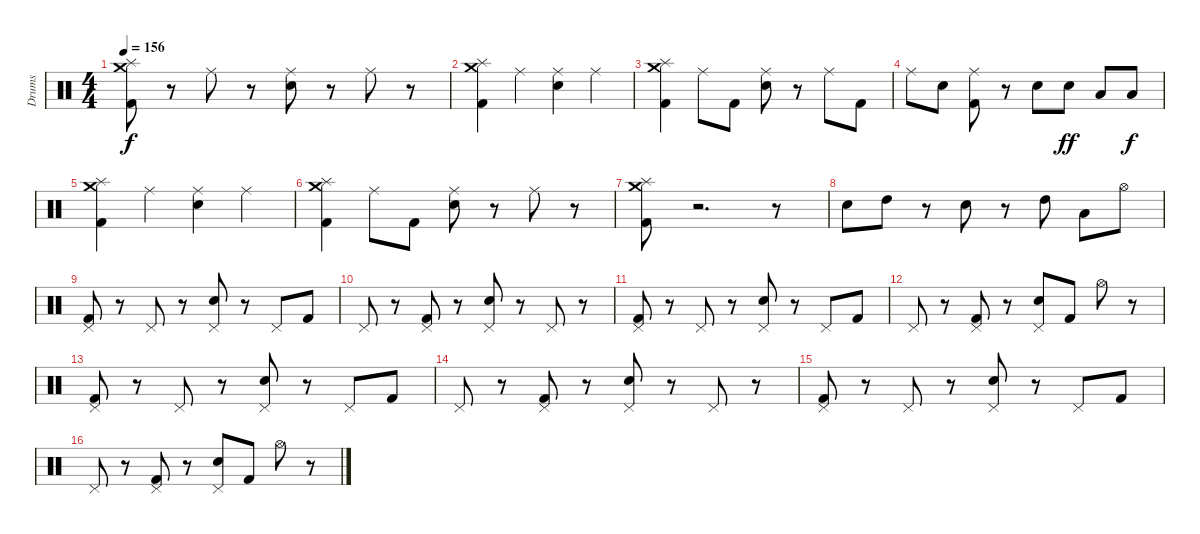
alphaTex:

\track ("Drums" "Drums") {instrument percussion}
\staff {score}
\articulation defaults
\ts (4 4)
\tempo 156
\clef neutral
\ks c
("Splash (hit)" "Crash medium (hit)" "Kick (hit) 2").8{dy f} r.8 "Ride (middle)".8 r.8 ("Ride (middle)" "Electric Snare (hit)").8 r.8 "Ride (middle)".8 r.8 |
("Crash medium (hit)" "Splash (hit)" "Kick (hit) 2").4 "Ride (middle)".4 ("Ride (middle)" "Electric Snare (hit)").4 "Ride (middle)".4 |
("Crash medium (hit)" "Splash (hit)" "Kick (hit) 2").4 "Ride (middle)".8 "Kick (hit) 2".8 ("Ride (middle)" "Electric Snare (hit)").8 r.8 "Ride (middle)".8 "Kick (hit) 2".8 |
"Ride (middle)".8 "Electric Snare (hit)".8 ("Ride (middle)" "Kick (hit) 2").8 r.8 "Electric Snare (hit)".8 "Electric Snare (hit)".8{dy ff} "Low Tom (hit)".8 "Low Tom (hit)".8{dy f} |
("Crash medium (hit)" "Splash (hit)" "Kick (hit) 2").4 "Ride (middle)".4 ("Ride (middle)" "Electric Snare (hit)").4 "Ride (middle)".4 |
("Crash medium (hit)" "Splash (hit)" "Kick (hit) 2").4 "Ride (middle)".8 "Kick (hit) 2".8 ("Ride (middle)" "Electric Snare (hit)").8 r.8 "Ride (middle)".8 r.8 |
("Crash medium (hit)" "Splash (hit)" "Kick (hit) 2").8 r.2{d} r.8 |
"Electric Snare (hit)".8 "High Tom (hit)".8 r.8 "Electric Snare (hit)".8 r.8 "High Tom (hit)".8 "Low Tom (hit)".8 "Hi-Hat (open)".8 |
("Pedal Hi-Hat (hit)" "Kick (hit) 2").8 r.8 "Pedal Hi-Hat (hit)".8 r.8 ("Pedal Hi-Hat (hit)" "Electric Snare (hit)").8 r.8 "Pedal Hi-Hat (hit)".8 "Kick (hit) 2".8 |
"Pedal Hi-Hat (hit)".8 r.8 ("Pedal Hi-Hat (hit)" "Kick (hit) 2").8 r.8 ("Pedal Hi-Hat (hit)" "Electric Snare (hit)").8 r.8 "Pedal Hi-Hat (hit)".8 r.8 |
("Pedal Hi-Hat (hit)" "Kick (hit) 2").8 r.8 "Pedal Hi-Hat (hit)".8 r.8 ("Pedal Hi-Hat (hit)" "Electric Snare (hit)").8 r.8 "Pedal Hi-Hat (hit)".8 "Kick (hit) 2".8 |
"Pedal Hi-Hat (hit)".8 r.8 ("Pedal Hi-Hat (hit)" "Kick (hit) 2").8 r.8 ("Pedal Hi-Hat (hit)" "Electric Snare (hit)").8 "Kick (hit) 2".8 "Hi-Hat (open)".8 r.8 |
("Pedal Hi-Hat (hit)" "Kick (hit) 2").8 r.8 "Pedal Hi-Hat (hit)".8 r.8 ("Pedal Hi-Hat (hit)" "Electric Snare (hit)").8 r.8 "Pedal Hi-Hat (hit)".8 "Kick (hit) 2".8 |
"Pedal Hi-Hat (hit)".8 r.8 ("Pedal Hi-Hat (hit)" "Kick (hit) 2").8 r.8 ("Pedal Hi-Hat (hit)" "Electric Snare (hit)").8 r.8 "Pedal Hi-Hat (hit)".8 r.8 |
("Pedal Hi-Hat (hit)" "Kick (hit) 2").8 r.8 "Pedal Hi-Hat (hit)".8 r.8 ("Pedal Hi-Hat (hit)" "Electric Snare (hit)").8 r.8 "Pedal Hi-Hat (hit)".8 "Kick (hit) 2".8 |
"Pedal Hi-Hat (hit)".8 r.8 ("Pedal Hi-Hat (hit)" "Kick (hit) 2").8 r.8 ("Pedal Hi-Hat (hit)" "Electric Snare (hit)").8 "Kick (hit) 2".8 "Hi-Hat (open)".8 r.8
